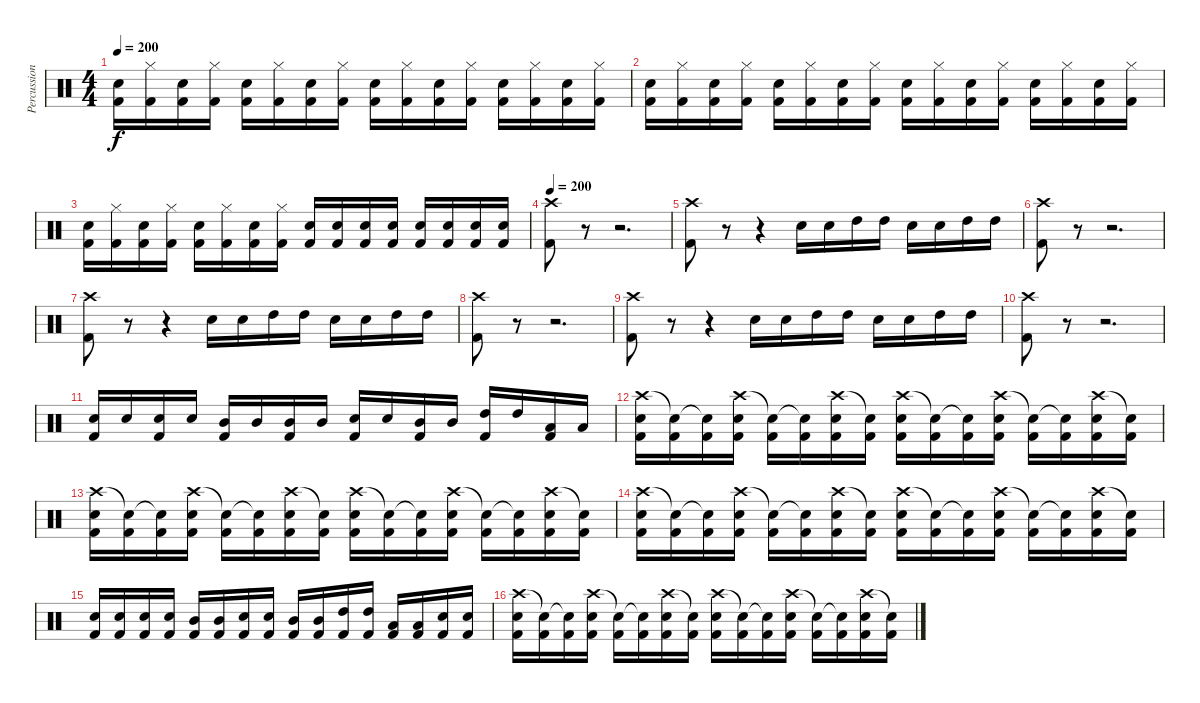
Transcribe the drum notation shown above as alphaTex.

\track ("Percussion" "Percussion") {instrument percussion}
\staff {score}
\articulation defaults
\ts (4 4)
\tempo 200
\clef neutral
\ks c
("Snare (hit) 2" "Kick (hit) 2").16{dy f} ("Hi-Hat (closed)" "Kick (hit) 2").16 ("Snare (hit) 2" "Kick (hit) 2").16 ("Hi-Hat (closed)" "Kick (hit) 2").16 ("Snare (hit) 2" "Kick (hit) 2").16 ("Hi-Hat (closed)" "Kick (hit) 2").16 ("Snare (hit) 2" "Kick (hit) 2").16 ("Hi-Hat (closed)" "Kick (hit) 2").16 ("Snare (hit) 2" "Kick (hit) 2").16 ("Hi-Hat (closed)" "Kick (hit) 2").16 ("Snare (hit) 2" "Kick (hit) 2").16 ("Hi-Hat (closed)" "Kick (hit) 2").16 ("Snare (hit) 2" "Kick (hit) 2").16 ("Hi-Hat (closed)" "Kick (hit) 2").16 ("Snare (hit) 2" "Kick (hit) 2").16 ("Hi-Hat (closed)" "Kick (hit) 2").16 |
("Snare (hit) 2" "Kick (hit) 2").16 ("Hi-Hat (closed)" "Kick (hit) 2").16 ("Snare (hit) 2" "Kick (hit) 2").16 ("Hi-Hat (closed)" "Kick (hit) 2").16 ("Snare (hit) 2" "Kick (hit) 2").16 ("Hi-Hat (closed)" "Kick (hit) 2").16 ("Snare (hit) 2" "Kick (hit) 2").16 ("Hi-Hat (closed)" "Kick (hit) 2").16 ("Snare (hit) 2" "Kick (hit) 2").16 ("Hi-Hat (closed)" "Kick (hit) 2").16 ("Snare (hit) 2" "Kick (hit) 2").16 ("Hi-Hat (closed)" "Kick (hit) 2").16 ("Snare (hit) 2" "Kick (hit) 2").16 ("Hi-Hat (closed)" "Kick (hit) 2").16 ("Snare (hit) 2" "Kick (hit) 2").16 ("Hi-Hat (closed)" "Kick (hit) 2").16 |
("Snare (hit) 2" "Kick (hit) 2").16 ("Hi-Hat (closed)" "Kick (hit) 2").16 ("Snare (hit) 2" "Kick (hit) 2").16 ("Hi-Hat (closed)" "Kick (hit) 2").16 ("Snare (hit) 2" "Kick (hit) 2").16 ("Hi-Hat (closed)" "Kick (hit) 2").16 ("Snare (hit) 2" "Kick (hit) 2").16 ("Hi-Hat (closed)" "Kick (hit) 2").16 ("Snare (hit) 2" "Kick (hit) 2").16 ("Snare (hit) 2" "Kick (hit) 2").16 ("Snare (hit) 2" "Kick (hit) 2").16 ("Snare (hit) 2" "Kick (hit) 2").16 ("Snare (hit) 2" "Kick (hit) 2").16 ("Snare (hit) 2" "Kick (hit) 2").16 ("Snare (hit) 2" "Kick (hit) 2").16 ("Snare (hit) 2" "Kick (hit) 2").16 |
\tempo 200
("Kick (hit) 2" "Crash high (hit)").8 r.8 r.2{d} |
("Kick (hit) 2" "Crash high (hit)").8 r.8 r.4 "Snare (hit) 2".16 "Snare (hit) 2".16 "High Tom (hit)".16 "High Tom (hit)".16 "Snare (hit) 2".16 "Snare (hit) 2".16 "High Tom (hit)".16 "High Tom (hit)".16 |
("Kick (hit) 2" "Crash high (hit)").8 r.8 r.2{d} |
("Kick (hit) 2" "Crash high (hit)").8 r.8 r.4 "Snare (hit) 2".16 "Snare (hit) 2".16 "High Tom (hit)".16 "High Tom (hit)".16 "Snare (hit) 2".16 "Snare (hit) 2".16 "High Tom (hit)".16 "High Tom (hit)".16 |
("Kick (hit) 2" "Crash high (hit)").8 r.8 r.2{d} |
("Kick (hit) 2" "Crash high (hit)").8 r.8 r.4 "Snare (hit) 2".16 "Snare (hit) 2".16 "High Tom (hit)".16 "High Tom (hit)".16 "Snare (hit) 2".16 "Snare (hit) 2".16 "High Tom (hit)".16 "High Tom (hit)".16 |
("Kick (hit) 2" "Crash high (hit)").8 r.8 r.2{d} |
("Snare (hit) 2" "Kick (hit) 2").16 "Snare (hit) 2".16 ("Snare (hit) 2" "Kick (hit) 2").16 "Snare (hit) 2".16 ("Mid Tom (hit)" "Kick (hit) 2").16 "Mid Tom (hit)".16 ("Mid Tom (hit)" "Kick (hit) 2").16 "Mid Tom (hit)".16 ("Snare (hit) 2" "Kick (hit) 2").16 "Snare (hit) 2".16 ("Mid Tom (hit)" "Kick (hit) 2").16 "Mid Tom (hit)".16 ("High Tom (hit)" "Kick (hit) 2").16 "High Tom (hit)".16 ("Low Tom (hit)" "Kick (hit) 2").16 "Low Tom (hit)".16 |
("Crash high (hit)" "Snare (hit) 2" "Kick (hit) 2").16 ("Snare (hit)"{t} "Kick (hit) 2").16 ("Snare (hit)"{t} "Kick (hit) 2").16 ("Crash high (hit)" "Snare (hit) 2" "Kick (hit) 2").16 ("Snare (hit)"{t} "Kick (hit) 2").16 ("Snare (hit)"{t} "Kick (hit) 2").16 ("Crash high (hit)" "Snare (hit) 2" "Kick (hit) 2").16 ("Snare (hit)"{t} "Kick (hit) 2").16 ("Crash high (hit)" "Snare (hit) 2" "Kick (hit) 2").16 ("Snare (hit)"{t} "Kick (hit) 2").16 ("Snare (hit)"{t} "Kick (hit) 2").16 ("Crash high (hit)" "Snare (hit) 2" "Kick (hit) 2").16 ("Snare (hit)"{t} "Kick (hit) 2").16 ("Snare (hit)"{t} "Kick (hit) 2").16 ("Crash high (hit)" "Snare (hit) 2" "Kick (hit) 2").16 ("Snare (hit)"{t} "Kick (hit) 2").16 |
("Crash high (hit)" "Snare (hit) 2" "Kick (hit) 2").16 ("Snare (hit)"{t} "Kick (hit) 2").16 ("Snare (hit)"{t} "Kick (hit) 2").16 ("Crash high (hit)" "Snare (hit) 2" "Kick (hit) 2").16 ("Snare (hit)"{t} "Kick (hit) 2").16 ("Snare (hit)"{t} "Kick (hit) 2").16 ("Crash high (hit)" "Snare (hit) 2" "Kick (hit) 2").16 ("Snare (hit)"{t} "Kick (hit) 2").16 ("Crash high (hit)" "Snare (hit) 2" "Kick (hit) 2").16 ("Snare (hit)"{t} "Kick (hit) 2").16 ("Snare (hit)"{t} "Kick (hit) 2").16 ("Crash high (hit)" "Snare (hit) 2" "Kick (hit) 2").16 ("Snare (hit)"{t} "Kick (hit) 2").16 ("Snare (hit)"{t} "Kick (hit) 2").16 ("Crash high (hit)" "Snare (hit) 2" "Kick (hit) 2").16 ("Snare (hit)"{t} "Kick (hit) 2").16 |
("Crash high (hit)" "Snare (hit) 2" "Kick (hit) 2").16 ("Snare (hit)"{t} "Kick (hit) 2").16 ("Snare (hit)"{t} "Kick (hit) 2").16 ("Crash high (hit)" "Snare (hit) 2" "Kick (hit) 2").16 ("Snare (hit)"{t} "Kick (hit) 2").16 ("Snare (hit)"{t} "Kick (hit) 2").16 ("Crash high (hit)" "Snare (hit) 2" "Kick (hit) 2").16 ("Snare (hit)"{t} "Kick (hit) 2").16 ("Crash high (hit)" "Snare (hit) 2" "Kick (hit) 2").16 ("Snare (hit)"{t} "Kick (hit) 2").16 ("Snare (hit)"{t} "Kick (hit) 2").16 ("Crash high (hit)" "Snare (hit) 2" "Kick (hit) 2").16 ("Snare (hit)"{t} "Kick (hit) 2").16 ("Snare (hit)"{t} "Kick (hit) 2").16 ("Crash high (hit)" "Snare (hit) 2" "Kick (hit) 2").16 ("Snare (hit)"{t} "Kick (hit) 2").16 |
("Snare (hit) 2" "Kick (hit) 2").16 ("Snare (hit) 2" "Kick (hit) 2").16 ("Snare (hit) 2" "Kick (hit) 2").16 ("Snare (hit) 2" "Kick (hit) 2").16 ("Mid Tom (hit)" "Kick (hit) 2").16 ("Mid Tom (hit)" "Kick (hit) 2").16 ("Snare (hit) 2" "Kick (hit) 2").16 ("Snare (hit) 2" "Kick (hit) 2").16 ("Mid Tom (hit)" "Kick (hit) 2").16 ("Mid Tom (hit)" "Kick (hit) 2").16 ("High Tom (hit)" "Kick (hit) 2").16 ("High Tom (hit)" "Kick (hit) 2").16 ("Low Tom (hit)" "Kick (hit) 2").16 ("Low Tom (hit)" "Kick (hit) 2").16 ("Snare (hit) 2" "Kick (hit) 2").16 ("Snare (hit) 2" "Kick (hit) 2").16 |
("Crash high (hit)" "Snare (hit) 2" "Kick (hit) 2").16 ("Snare (hit)"{t} "Kick (hit) 2").16 ("Snare (hit)"{t} "Kick (hit) 2").16 ("Crash high (hit)" "Snare (hit) 2" "Kick (hit) 2").16 ("Snare (hit)"{t} "Kick (hit) 2").16 ("Snare (hit)"{t} "Kick (hit) 2").16 ("Crash high (hit)" "Snare (hit) 2" "Kick (hit) 2").16 ("Snare (hit)"{t} "Kick (hit) 2").16 ("Crash high (hit)" "Snare (hit) 2" "Kick (hit) 2").16 ("Snare (hit)"{t} "Kick (hit) 2").16 ("Snare (hit)"{t} "Kick (hit) 2").16 ("Crash high (hit)" "Snare (hit) 2" "Kick (hit) 2").16 ("Snare (hit)"{t} "Kick (hit) 2").16 ("Snare (hit)"{t} "Kick (hit) 2").16 ("Crash high (hit)" "Snare (hit) 2" "Kick (hit) 2").16 ("Snare (hit)"{t} "Kick (hit) 2").16
